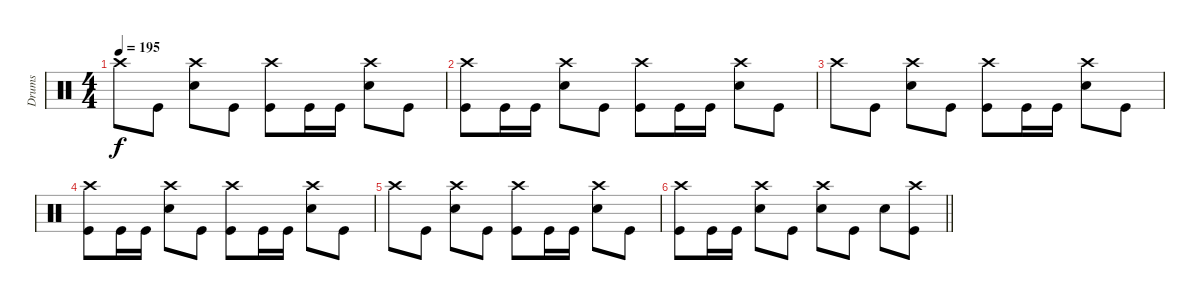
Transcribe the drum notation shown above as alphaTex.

\track ("Drums" "Drums") {instrument percussion}
\staff {score}
\articulation defaults
\ts (4 4)
\tempo 195
\clef neutral
\ks c "Crash high (hit)".8{dy f} "Kick (hit)".8
("Snare (hit) 2" "Crash high (hit)").8 "Kick (hit)".8 ("Kick (hit)" "Crash high (hit)").8 "Kick (hit)".16 "Kick (hit)".16 ("Snare (hit) 2" "Crash high (hit)").8 "Kick (hit)".8 |
("Kick (hit)" "Crash high (hit)").8 "Kick (hit)".16 "Kick (hit)".16 ("Snare (hit) 2" "Crash high (hit)").8 "Kick (hit)".8 ("Kick (hit)" "Crash high (hit)").8 "Kick (hit)".16 "Kick (hit)".16 ("Snare (hit) 2" "Crash high (hit)").8 "Kick (hit)".8 |
"Crash high (hit)".8 "Kick (hit)".8 ("Snare (hit) 2" "Crash high (hit)").8 "Kick (hit)".8 ("Kick (hit)" "Crash high (hit)").8 "Kick (hit)".16 "Kick (hit)".16 ("Snare (hit) 2" "Crash high (hit)").8 "Kick (hit)".8 |
("Kick (hit)" "Crash high (hit)").8 "Kick (hit)".16 "Kick (hit)".16 ("Snare (hit) 2" "Crash high (hit)").8 "Kick (hit)".8 ("Kick (hit)" "Crash high (hit)").8 "Kick (hit)".16 "Kick (hit)".16 ("Snare (hit) 2" "Crash high (hit)").8 "Kick (hit)".8 |
"Crash high (hit)".8 "Kick (hit)".8 ("Snare (hit) 2" "Crash high (hit)").8 "Kick (hit)".8 ("Kick (hit)" "Crash high (hit)").8 "Kick (hit)".16 "Kick (hit)".16 ("Snare (hit) 2" "Crash high (hit)").8 "Kick (hit)".8 |
\barLineRight lightlight
("Kick (hit)" "Crash high (hit)").8 "Kick (hit)".16 "Kick (hit)".16 ("Snare (hit) 2" "Crash high (hit)").8 "Kick (hit)".8 ("Snare (hit) 2" "Crash high (hit)").8 "Kick (hit)".8 "Snare (hit) 2".8 ("Kick (hit)" "Crash high (hit)").8
